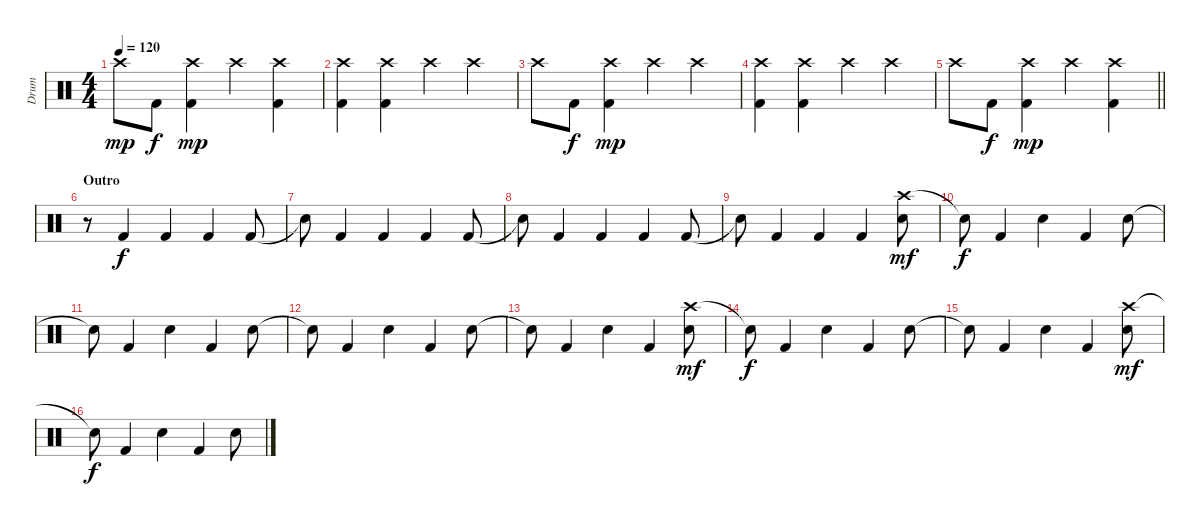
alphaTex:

\track ("Drum" "Drum") {instrument percussion}
\staff {score}
\articulation defaults
\ts (4 4)
\tempo 120
\clef neutral
\ks c "Crash high (hit)".8{dy mp} "Kick (hit) 2".8{dy f}
("Crash high (hit)" "Kick (hit) 2").4{dy mp} "Crash high (hit)".4 ("Crash high (hit)" "Kick (hit) 2").4 |
("Crash high (hit)" "Kick (hit) 2").4 ("Crash high (hit)" "Kick (hit) 2").4 "Crash high (hit)".4 "Crash high (hit)".4 |
"Crash high (hit)".8 "Kick (hit) 2".8{dy f} ("Crash high (hit)" "Kick (hit) 2").4{dy mp} "Crash high (hit)".4 "Crash high (hit)".4 |
("Crash high (hit)" "Kick (hit) 2").4 ("Crash high (hit)" "Kick (hit) 2").4 "Crash high (hit)".4 "Crash high (hit)".4 |
\barLineRight lightlight "Crash high (hit)".8 "Kick (hit) 2".8{dy f}
("Crash high (hit)" "Kick (hit) 2").4{dy mp} "Crash high (hit)".4 ("Crash high (hit)" "Kick (hit) 2").4 |
\section ("" "Outro")
r.8 "Kick (hit) 2".4{dy f} "Kick (hit) 2".4 "Kick (hit) 2".4 "Kick (hit) 2".8 |
"Snare (hit)"{t}.8 "Kick (hit) 2".4 "Kick (hit) 2".4 "Kick (hit) 2".4 "Kick (hit) 2".8 |
"Snare (hit)"{t}.8 "Kick (hit) 2".4 "Kick (hit) 2".4 "Kick (hit) 2".4 "Kick (hit) 2".8 |
"Snare (hit)"{t}.8 "Kick (hit) 2".4 "Kick (hit) 2".4 "Kick (hit) 2".4 ("Crash high (hit)" "Snare (hit) 2").8{dy mf} |
"Snare (hit)"{t}.8{dy f} "Kick (hit) 2".4 "Snare (hit) 2".4 "Kick (hit) 2".4 "Snare (hit) 2".8 |
"Snare (hit)"{t}.8 "Kick (hit) 2".4 "Snare (hit) 2".4 "Kick (hit) 2".4 "Snare (hit) 2".8 |
"Snare (hit)"{t}.8 "Kick (hit) 2".4 "Snare (hit) 2".4 "Kick (hit) 2".4 "Snare (hit) 2".8 |
"Snare (hit)"{t}.8 "Kick (hit) 2".4 "Snare (hit) 2".4 "Kick (hit) 2".4 ("Crash high (hit)" "Snare (hit) 2").8{dy mf} |
"Snare (hit)"{t}.8{dy f} "Kick (hit) 2".4 "Snare (hit) 2".4 "Kick (hit) 2".4 "Snare (hit) 2".8 |
"Snare (hit)"{t}.8 "Kick (hit) 2".4 "Snare (hit) 2".4 "Kick (hit) 2".4 ("Crash high (hit)" "Snare (hit) 2").8{dy mf} |
"Snare (hit)"{t}.8{dy f} "Kick (hit) 2".4 "Snare (hit) 2".4 "Kick (hit) 2".4 "Snare (hit) 2".8
